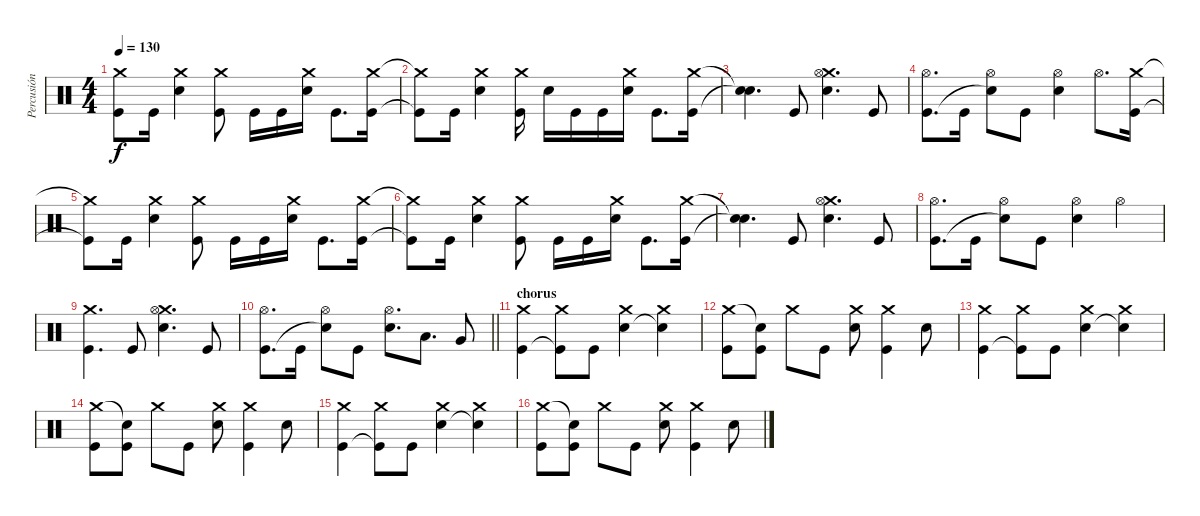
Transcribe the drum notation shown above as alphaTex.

\track ("Percusión" "Percusión") {instrument percussion}
\staff {score}
\articulation defaults
\ts (4 4)
\tempo 130
\clef neutral
\ks c
("Crash medium (hit)"{t} "Kick (hit)"{t}).8{dy f} "Kick (hit)".16 ("Crash medium (hit)" "Electric Snare (hit)").4 ("Crash medium (hit)" "Kick (hit)").8 "Kick (hit)".16 "Kick (hit)".16 ("Crash medium (hit)" "Electric Snare (hit)").16 "Kick (hit)".8{d} ("Crash medium (hit)" "Kick (hit)").16 |
("Crash medium (hit)"{t} "Kick (hit)"{t}).8 "Kick (hit)".16 ("Crash medium (hit)" "Electric Snare (hit)").4 ("Crash medium (hit)" "Kick (hit)").16 "Electric Snare (hit)".16 "Kick (hit)".16 "Kick (hit)".16 ("Crash medium (hit)" "Electric Snare (hit)").16 "Kick (hit)".8{d} ("Crash medium (hit)" "Kick (hit)").16 |
("Snare (hit)"{t} "Snare (hit)"{t}).4{d} "Kick (hit)".8 ("Crash medium (hit)" "Hi-Hat (open)" "Electric Snare (hit)").4{d} "Kick (hit)".8 |
("Hi-Hat (open)" "Kick (hit)").8{d} "Kick (hit)".16 ("Hi-Hat (open)" "Snare (hit)"{t}).8 "Kick (hit)".8 ("Hi-Hat (open)" "Electric Snare (hit)").4 "Hi-Hat (open)".8{d} ("Crash medium (hit)" "Kick (hit)").16 |
("Crash medium (hit)"{t} "Kick (hit)"{t}).8 "Kick (hit)".16 ("Crash medium (hit)" "Electric Snare (hit)").4 ("Crash medium (hit)" "Kick (hit)").8 "Kick (hit)".16 "Kick (hit)".16 ("Crash medium (hit)" "Electric Snare (hit)").16 "Kick (hit)".8{d} ("Crash medium (hit)" "Kick (hit)").16 |
("Crash medium (hit)"{t} "Kick (hit)"{t}).8 "Kick (hit)".16 ("Crash medium (hit)" "Electric Snare (hit)").4 ("Crash medium (hit)" "Kick (hit)").8 "Kick (hit)".16 "Kick (hit)".16 ("Crash medium (hit)" "Electric Snare (hit)").16 "Kick (hit)".8{d} ("Crash medium (hit)" "Kick (hit)").16 |
("Snare (hit)"{t} "Snare (hit)"{t}).4{d} "Kick (hit)".8 ("Crash medium (hit)" "Hi-Hat (open)" "Electric Snare (hit)").4{d} "Kick (hit)".8 |
("Hi-Hat (open)" "Kick (hit)").8{d} "Kick (hit)".16 ("Hi-Hat (open)" "Snare (hit)"{t}).8 "Kick (hit)".8 ("Hi-Hat (open)" "Electric Snare (hit)").4 "Hi-Hat (open)".4 |
("Crash medium (hit)" "Kick (hit)").4{d} "Kick (hit)".8 ("Crash medium (hit)" "Hi-Hat (open)" "Electric Snare (hit)").4{d} "Kick (hit)".8 |
\barLineRight lightlight
("Hi-Hat (open)" "Kick (hit)").8{d} "Kick (hit)".16 ("Hi-Hat (open)" "Snare (hit)"{t}).8 "Kick (hit)".8 ("Hi-Hat (open)" "Electric Snare (hit)").8{d} "Low Tom (hit)".8{d} "Very Low Tom (hit)".8 |
\section ("" "chorus")
("Crash medium (hit)" "Kick (hit)").4 ("Crash medium (hit)" "Kick (hit)"{t}).8 "Kick (hit)".8 ("Crash medium (hit)" "Electric Snare (hit)").4 ("Crash medium (hit)" "Snare (hit)"{t}).4 |
("Crash medium (hit)" "Kick (hit)").8 ("Snare (hit)"{t} "Kick (hit)").8 "Crash medium (hit)".8 "Kick (hit)".8 ("Crash medium (hit)" "Electric Snare (hit)").8 ("Crash medium (hit)" "Kick (hit)").4 "Electric Snare (hit)".8 |
("Crash medium (hit)" "Kick (hit)").4 ("Crash medium (hit)" "Kick (hit)"{t}).8 "Kick (hit)".8 ("Crash medium (hit)" "Electric Snare (hit)").4 ("Crash medium (hit)" "Snare (hit)"{t}).4 |
("Crash medium (hit)" "Kick (hit)").8 ("Snare (hit)"{t} "Kick (hit)").8 "Crash medium (hit)".8 "Kick (hit)".8 ("Crash medium (hit)" "Electric Snare (hit)").8 ("Crash medium (hit)" "Kick (hit)").4 "Electric Snare (hit)".8 |
("Crash medium (hit)" "Kick (hit)").4 ("Crash medium (hit)" "Kick (hit)"{t}).8 "Kick (hit)".8 ("Crash medium (hit)" "Electric Snare (hit)").4 ("Crash medium (hit)" "Snare (hit)"{t}).4 |
("Crash medium (hit)" "Kick (hit)").8 ("Snare (hit)"{t} "Kick (hit)").8 "Crash medium (hit)".8 "Kick (hit)".8 ("Crash medium (hit)" "Electric Snare (hit)").8 ("Crash medium (hit)" "Kick (hit)").4 "Electric Snare (hit)".8
